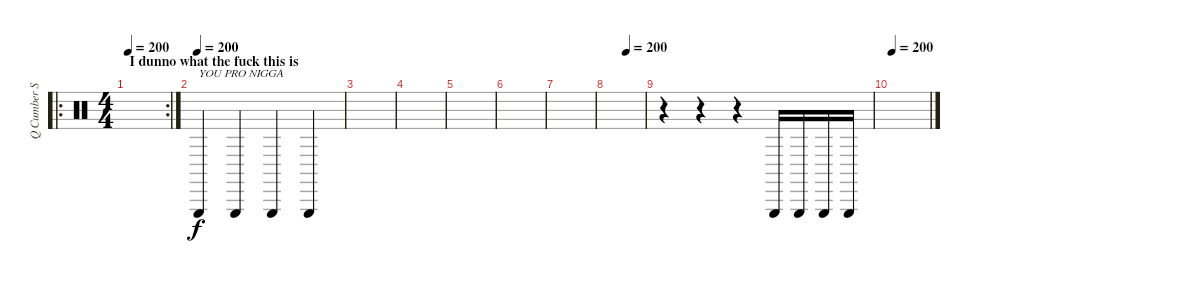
\track ("Q Cumber Slice" "Q Cumber S") {instrument percussion}
\staff {score}
\articulation defaults
\ro
\rc 2
\ts (4 4)
\section ("" "I dunno what the fuck this is")
\tempo 200
\tempo 10
\tempo 200
\clef neutral
\ks c
|
\tempo (200)
"Triangle (hit)".4{txt "YOU PRO NIGGA"} "Triangle (hit)".4 "Triangle (hit)".4 "Triangle (hit)".4 |
|
|
|
|
|
\tempo (200 0.5)
|
r.4 r.4 r.4 "Triangle (hit)".16 "Triangle (hit)".16 "Triangle (hit)".16 "Triangle (hit)".16 |
\tempo 200
